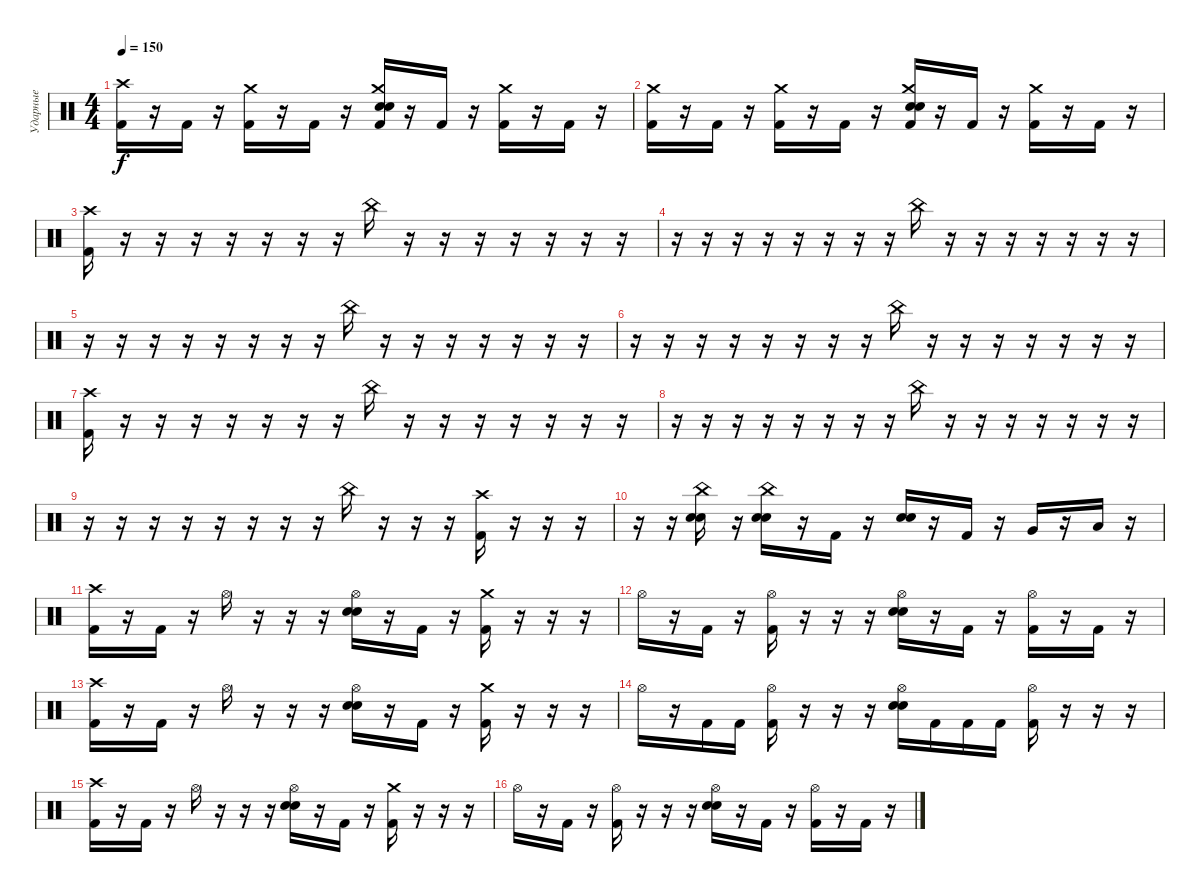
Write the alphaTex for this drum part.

\track ("Ударные" "Ударные") {solo instrument percussion}
\staff {score}
\articulation defaults
\ts (4 4)
\tempo 150
\clef neutral
\ks c
("Crash high (hit)" "Kick (hit) 2").16{dy f} r.16 "Kick (hit) 2".16 r.16 ("Crash medium (hit)" "Kick (hit) 2").16 r.16 "Kick (hit) 2".16 r.16 ("Crash medium (hit)" "Electric Snare (hit)" "Snare (hit) 2" "Kick (hit) 2").16 r.16 "Kick (hit) 2".16 r.16 ("Crash medium (hit)" "Kick (hit) 2").16 r.16 "Kick (hit) 2".16 r.16 |
("Crash medium (hit)" "Kick (hit) 2").16 r.16 "Kick (hit) 2".16 r.16 ("Crash medium (hit)" "Kick (hit) 2").16 r.16 "Kick (hit) 2".16 r.16 ("Crash medium (hit)" "Electric Snare (hit)" "Snare (hit) 2" "Kick (hit) 2").16 r.16 "Kick (hit) 2".16 r.16 ("Crash medium (hit)" "Kick (hit) 2").16 r.16 "Kick (hit) 2".16 r.16 |
("Crash high (hit)" "Kick (hit) 2").16 r.16 r.16 r.16 r.16 r.16 r.16 r.16 "China (hit)".16 r.16 r.16 r.16 r.16 r.16 r.16 r.16 |
r.16 r.16 r.16 r.16 r.16 r.16 r.16 r.16 "China (hit)".16 r.16 r.16 r.16 r.16 r.16 r.16 r.16 |
r.16 r.16 r.16 r.16 r.16 r.16 r.16 r.16 "China (hit)".16 r.16 r.16 r.16 r.16 r.16 r.16 r.16 |
r.16 r.16 r.16 r.16 r.16 r.16 r.16 r.16 "China (hit)".16 r.16 r.16 r.16 r.16 r.16 r.16 r.16 |
("Crash high (hit)" "Kick (hit) 2").16 r.16 r.16 r.16 r.16 r.16 r.16 r.16 "China (hit)".16 r.16 r.16 r.16 r.16 r.16 r.16 r.16 |
r.16 r.16 r.16 r.16 r.16 r.16 r.16 r.16 "China (hit)".16 r.16 r.16 r.16 r.16 r.16 r.16 r.16 |
r.16 r.16 r.16 r.16 r.16 r.16 r.16 r.16 "China (hit)".16 r.16 r.16 r.16 ("Crash high (hit)" "Kick (hit) 2").16 r.16 r.16 r.16 |
r.16 r.16 ("China (hit)" "Electric Snare (hit)" "Snare (hit) 2").16 r.16 ("China (hit)" "Electric Snare (hit)" "Snare (hit) 2").16 r.16 "Kick (hit) 2".16 r.16 ("Electric Snare (hit)" "Snare (hit) 2").16 r.16 "Kick (hit) 2".16 r.16 "Very Low Tom (hit)".16 r.16 "Low Floor Tom (hit)".16 r.16 |
("Crash high (hit)" "Kick (hit) 2").16 r.16 "Kick (hit) 2".16 r.16 "Hi-Hat (open)".16 r.16 r.16 r.16 ("Hi-Hat (open)" "Electric Snare (hit)" "Snare (hit) 2").16 r.16 "Kick (hit) 2".16 r.16 ("Crash medium (hit)" "Kick (hit) 2").16 r.16 r.16 r.16 |
"Hi-Hat (open)".16 r.16 "Kick (hit) 2".16 r.16 ("Hi-Hat (open)" "Kick (hit) 2").16 r.16 r.16 r.16 ("Hi-Hat (open)" "Electric Snare (hit)" "Snare (hit) 2").16 r.16 "Kick (hit) 2".16 r.16 ("Hi-Hat (open)" "Kick (hit) 2").16 r.16 "Kick (hit) 2".16 r.16 |
("Crash high (hit)" "Kick (hit) 2").16 r.16 "Kick (hit) 2".16 r.16 "Hi-Hat (open)".16 r.16 r.16 r.16 ("Hi-Hat (open)" "Electric Snare (hit)" "Snare (hit) 2").16 r.16 "Kick (hit) 2".16 r.16 ("Crash medium (hit)" "Kick (hit) 2").16 r.16 r.16 r.16 |
"Hi-Hat (open)".16 r.16 "Kick (hit) 2".16 "Kick (hit) 2".16 ("Hi-Hat (open)" "Kick (hit) 2").16 r.16 r.16 r.16 ("Hi-Hat (open)" "Electric Snare (hit)" "Snare (hit) 2").16 "Kick (hit) 2".16 "Kick (hit) 2".16 "Kick (hit) 2".16 ("Hi-Hat (open)" "Kick (hit) 2").16 r.16 r.16 r.16 |
("Crash high (hit)" "Kick (hit) 2").16 r.16 "Kick (hit) 2".16 r.16 "Hi-Hat (open)".16 r.16 r.16 r.16 ("Hi-Hat (open)" "Electric Snare (hit)" "Snare (hit) 2").16 r.16 "Kick (hit) 2".16 r.16 ("Crash medium (hit)" "Kick (hit) 2").16 r.16 r.16 r.16 |
"Hi-Hat (open)".16 r.16 "Kick (hit) 2".16 r.16 ("Hi-Hat (open)" "Kick (hit) 2").16 r.16 r.16 r.16 ("Hi-Hat (open)" "Electric Snare (hit)" "Snare (hit) 2").16 r.16 "Kick (hit) 2".16 r.16 ("Hi-Hat (open)" "Kick (hit) 2").16 r.16 "Kick (hit) 2".16 r.16
